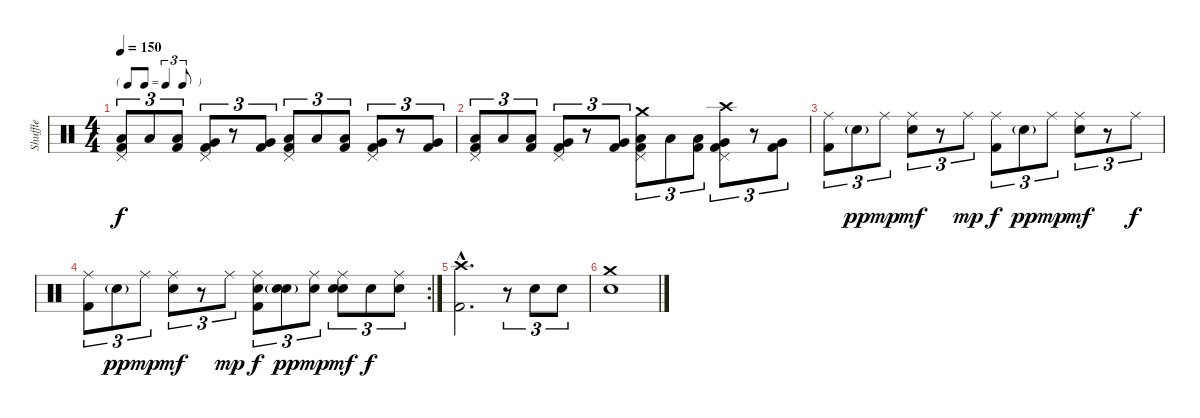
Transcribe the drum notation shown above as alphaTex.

\track ("Shuffle" "Shuffle") {instrument percussion}
\staff {score}
\articulation defaults
\ts (4 4)
\tf triplet8th
\tempo 150
\clef neutral
\ks c
("Pedal Hi-Hat (hit)" "Kick (hit) 2" "Low Tom (hit)").8{tu (3 2) dy f} "Low Tom (hit)".8{tu (3 2)} ("Kick (hit) 2" "Low Tom (hit)").8{tu (3 2)} ("Pedal Hi-Hat (hit)" "Kick (hit) 2" "Very Low Tom (hit)").8{tu (3 2)} r.8{tu (3 2)} ("Kick (hit) 2" "Very Low Tom (hit)").8{tu (3 2)} ("Pedal Hi-Hat (hit)" "Kick (hit) 2" "Low Tom (hit)").8{tu (3 2)} "Low Tom (hit)".8{tu (3 2)} ("Kick (hit) 2" "Low Tom (hit)").8{tu (3 2)} ("Pedal Hi-Hat (hit)" "Kick (hit) 2" "Very Low Tom (hit)").8{tu (3 2)} r.8{tu (3 2)} ("Kick (hit) 2" "Very Low Tom (hit)").8{tu (3 2)} |
("Pedal Hi-Hat (hit)" "Kick (hit) 2" "Low Tom (hit)").8{tu (3 2)} "Low Tom (hit)".8{tu (3 2)} ("Kick (hit) 2" "Low Tom (hit)").8{tu (3 2)} ("Pedal Hi-Hat (hit)" "Kick (hit) 2" "Very Low Tom (hit)").8{tu (3 2)} r.8{tu (3 2)} ("Kick (hit) 2" "Very Low Tom (hit)").8{tu (3 2)} ("Pedal Hi-Hat (hit)" "Crash medium (hit)" "Kick (hit) 2" "Low Tom (hit)").8{tu (3 2)} "Low Tom (hit)".8{tu (3 2)} ("Kick (hit) 2" "Low Tom (hit)").8{tu (3 2)} ("Pedal Hi-Hat (hit)" "Crash high (hit)" "Kick (hit) 2" "Very Low Tom (hit)").8{tu (3 2)} r.8{tu (3 2)} ("Kick (hit) 2" "Very Low Tom (hit)").8{tu (3 2)} |
("Ride (middle)" "Kick (hit) 2").8{tu (3 2)} "Snare (hit) 2"{g}.8{tu (3 2) dy pp} "Ride (middle)".8{tu (3 2) dy mp} ("Ride (middle)" "Snare (hit) 2").8{tu (3 2) dy mf} r.8{tu (3 2)} "Ride (middle)".8{tu (3 2) dy mp} ("Ride (middle)" "Kick (hit) 2").8{tu (3 2) dy f} "Snare (hit) 2"{g}.8{tu (3 2) dy pp} "Ride (middle)".8{tu (3 2) dy mp} ("Ride (middle)" "Snare (hit) 2").8{tu (3 2) dy mf} r.8{tu (3 2)} "Ride (middle)".8{tu (3 2) dy f} |
\rc 2
("Ride (middle)" "Kick (hit) 2").8{tu (3 2)} "Snare (hit) 2"{g}.8{tu (3 2) dy pp} "Ride (middle)".8{tu (3 2) dy mp} ("Ride (middle)" "Snare (hit) 2").8{tu (3 2) dy mf} r.8{tu (3 2)} "Ride (middle)".8{tu (3 2) dy mp} ("Ride (middle)" "Kick (hit) 2" "Snare (hit) 2").8{tu (3 2) dy f} ("Snare (hit) 2"{g} "Snare (hit) 2").8{tu (3 2) dy pp} ("Ride (middle)" "Snare (hit) 2").8{tu (3 2) dy mp} ("Ride (middle)" "Snare (hit) 2" "Snare (hit) 2").8{tu (3 2) dy mf} "Snare (hit) 2".8{tu (3 2) dy f} ("Ride (middle)" "Snare (hit) 2").8{tu (3 2)} |
("Kick (hit) 2"{hac} "Crash high (hit)"{hac}).2{d} r.8{tu (3 2)} "Snare (hit) 2".8{tu (3 2)} "Snare (hit) 2".8{tu (3 2)} |
("Crash medium (hit)" "Snare (hit) 2").1
